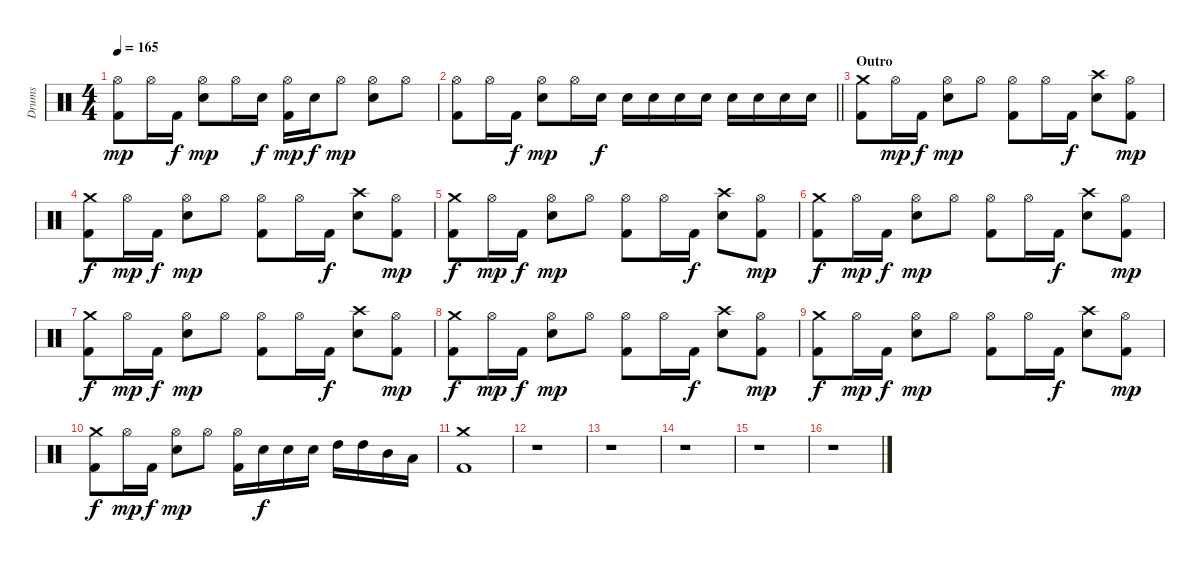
\track ("Drums" "Drums") {instrument percussion}
\staff {score}
\articulation defaults
\ts (4 4)
\tempo 165
\clef neutral
\ks c
("Hi-Hat (open)" "Kick (hit) 2").8{dy mp} "Hi-Hat (open)".16 "Kick (hit) 2".16{dy f} ("Hi-Hat (open)" "Snare (hit) 2").8{dy mp} "Hi-Hat (open)".16 "Snare (hit) 2".16{dy f} ("Hi-Hat (open)" "Kick (hit) 2").16{dy mp} "Snare (hit) 2".16{dy f} "Hi-Hat (open)".8{dy mp} ("Hi-Hat (open)" "Snare (hit) 2").8 "Hi-Hat (open)".8 |
\barLineRight lightlight
("Hi-Hat (open)" "Kick (hit) 2").8 "Hi-Hat (open)".16 "Kick (hit) 2".16{dy f} ("Hi-Hat (open)" "Snare (hit) 2").8{dy mp} "Hi-Hat (open)".16 "Snare (hit) 2".16{dy f} "Snare (hit) 2".16 "Snare (hit) 2".16 "Snare (hit) 2".16 "Snare (hit) 2".16 "Snare (hit) 2".16 "Snare (hit) 2".16 "Snare (hit) 2".16 "Snare (hit) 2".16 |
\section ("" "Outro")
("Crash medium (hit)" "Kick (hit) 2").8 "Hi-Hat (open)".16{dy mp} "Kick (hit) 2".16{dy f} ("Hi-Hat (open)" "Snare (hit) 2").8{dy mp} "Hi-Hat (open)".8 ("Hi-Hat (open)" "Kick (hit) 2").8 "Hi-Hat (open)".16 "Kick (hit) 2".16{dy f} ("Crash high (hit)" "Snare (hit) 2").8 ("Hi-Hat (open)" "Kick (hit) 2").8{dy mp} |
("Crash medium (hit)" "Kick (hit) 2").8{dy f} "Hi-Hat (open)".16{dy mp} "Kick (hit) 2".16{dy f} ("Hi-Hat (open)" "Snare (hit) 2").8{dy mp} "Hi-Hat (open)".8 ("Hi-Hat (open)" "Kick (hit) 2").8 "Hi-Hat (open)".16 "Kick (hit) 2".16{dy f} ("Crash high (hit)" "Snare (hit) 2").8 ("Hi-Hat (open)" "Kick (hit) 2").8{dy mp} |
("Crash medium (hit)" "Kick (hit) 2").8{dy f} "Hi-Hat (open)".16{dy mp} "Kick (hit) 2".16{dy f} ("Hi-Hat (open)" "Snare (hit) 2").8{dy mp} "Hi-Hat (open)".8 ("Hi-Hat (open)" "Kick (hit) 2").8 "Hi-Hat (open)".16 "Kick (hit) 2".16{dy f} ("Crash high (hit)" "Snare (hit) 2").8 ("Hi-Hat (open)" "Kick (hit) 2").8{dy mp} |
("Crash medium (hit)" "Kick (hit) 2").8{dy f} "Hi-Hat (open)".16{dy mp} "Kick (hit) 2".16{dy f} ("Hi-Hat (open)" "Snare (hit) 2").8{dy mp} "Hi-Hat (open)".8 ("Hi-Hat (open)" "Kick (hit) 2").8 "Hi-Hat (open)".16 "Kick (hit) 2".16{dy f} ("Crash high (hit)" "Snare (hit) 2").8 ("Hi-Hat (open)" "Kick (hit) 2").8{dy mp} |
("Crash medium (hit)" "Kick (hit) 2").8{dy f} "Hi-Hat (open)".16{dy mp} "Kick (hit) 2".16{dy f} ("Hi-Hat (open)" "Snare (hit) 2").8{dy mp} "Hi-Hat (open)".8 ("Hi-Hat (open)" "Kick (hit) 2").8 "Hi-Hat (open)".16 "Kick (hit) 2".16{dy f} ("Crash high (hit)" "Snare (hit) 2").8 ("Hi-Hat (open)" "Kick (hit) 2").8{dy mp} |
("Crash medium (hit)" "Kick (hit) 2").8{dy f} "Hi-Hat (open)".16{dy mp} "Kick (hit) 2".16{dy f} ("Hi-Hat (open)" "Snare (hit) 2").8{dy mp} "Hi-Hat (open)".8 ("Hi-Hat (open)" "Kick (hit) 2").8 "Hi-Hat (open)".16 "Kick (hit) 2".16{dy f} ("Crash high (hit)" "Snare (hit) 2").8 ("Hi-Hat (open)" "Kick (hit) 2").8{dy mp} |
("Crash medium (hit)" "Kick (hit) 2").8{dy f} "Hi-Hat (open)".16{dy mp} "Kick (hit) 2".16{dy f} ("Hi-Hat (open)" "Snare (hit) 2").8{dy mp} "Hi-Hat (open)".8 ("Hi-Hat (open)" "Kick (hit) 2").8 "Hi-Hat (open)".16 "Kick (hit) 2".16{dy f} ("Crash high (hit)" "Snare (hit) 2").8 ("Hi-Hat (open)" "Kick (hit) 2").8{dy mp} |
("Crash medium (hit)" "Kick (hit) 2").8{dy f} "Hi-Hat (open)".16{dy mp} "Kick (hit) 2".16{dy f} ("Hi-Hat (open)" "Snare (hit) 2").8{dy mp} "Hi-Hat (open)".8 ("Hi-Hat (open)" "Kick (hit) 2").16 "Snare (hit) 2".16{dy f} "Snare (hit) 2".16 "Snare (hit) 2".16 "High Tom (hit)".16 "High Tom (hit)".16 "Mid Tom (hit)".16 "Low Tom (hit)".16 |
("Crash medium (hit)" "Kick (hit) 2").1 |
r.1 |
r.1 |
r.1 |
r.1 |
r.1
